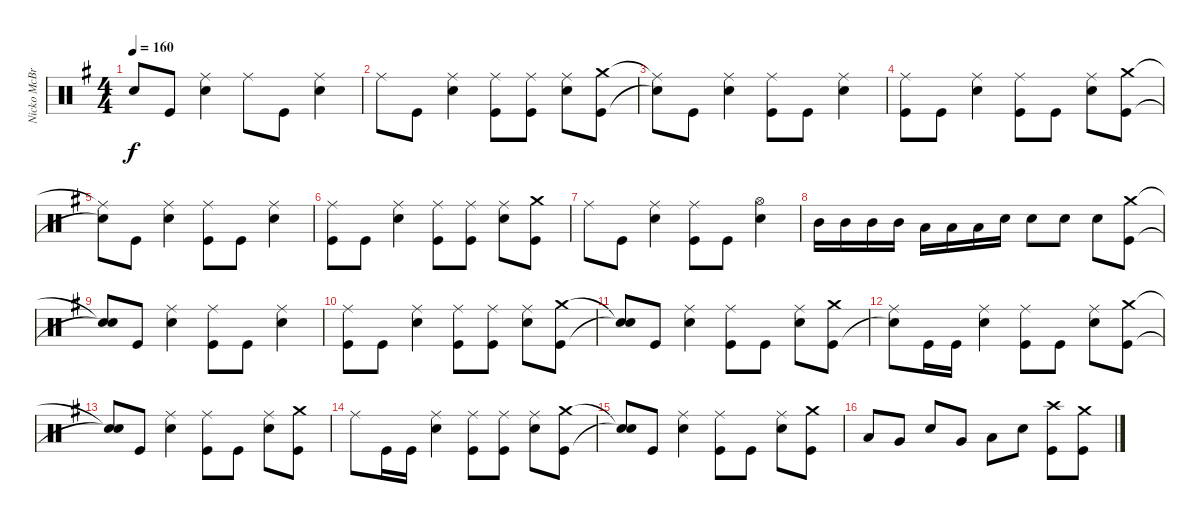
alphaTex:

\track ("Nicko McBrain" "Nicko McBr") {instrument percussion}
\staff {score}
\articulation defaults
\ts (4 4)
\tempo 160
\clef neutral
\ks g "Snare (hit)"{t}.8{dy f} "Kick (hit)".8
("Electric Snare (hit)" "Ride (middle)").4 "Ride (middle)".8 "Kick (hit)".8 ("Electric Snare (hit)" "Ride (middle)").4 |
"Ride (middle)".8 "Kick (hit)".8 ("Electric Snare (hit)" "Ride (middle)").4 ("Kick (hit)" "Ride (middle)").8 ("Kick (hit)" "Ride (middle)").8 ("Electric Snare (hit)" "Ride (middle)").8 ("Kick (hit)" "Crash medium (hit)").8 |
("Snare (hit)"{t} "Ride (middle)"{t}).8 "Kick (hit)".8 ("Electric Snare (hit)" "Ride (middle)").4 ("Kick (hit)" "Ride (middle)").8 "Kick (hit)".8 ("Electric Snare (hit)" "Ride (middle)").4 |
("Kick (hit)" "Ride (middle)").8 "Kick (hit)".8 ("Electric Snare (hit)" "Ride (middle)").4 ("Kick (hit)" "Ride (middle)").8 "Kick (hit)".8 ("Electric Snare (hit)" "Ride (middle)").8 ("Kick (hit)" "Crash medium (hit)").8 |
("Snare (hit)"{t} "Ride (middle)"{t}).8 "Kick (hit)".8 ("Electric Snare (hit)" "Ride (middle)").4 ("Kick (hit)" "Ride (middle)").8 "Kick (hit)".8 ("Electric Snare (hit)" "Ride (middle)").4 |
("Kick (hit)" "Ride (middle)").8 "Kick (hit)".8 ("Electric Snare (hit)" "Ride (middle)").4 ("Kick (hit)" "Ride (middle)").8 ("Kick (hit)" "Ride (middle)").8 ("Electric Snare (hit)" "Ride (middle)").8 ("Kick (hit)" "Crash medium (hit)").8 |
"Ride (middle)".8 "Kick (hit)".8 ("Electric Snare (hit)" "Ride (middle)").4 ("Kick (hit)" "Ride (middle)").8 "Kick (hit)".8 ("Electric Snare (hit)" "Hi-Hat (open)").4 |
"Mid Tom (hit)".16 "Mid Tom (hit)".16 "Mid Tom (hit)".16 "Mid Tom (hit)".16 "Low Tom (hit)".16 "Low Tom (hit)".16 "Low Tom (hit)".16 "Electric Snare (hit)".16 "Electric Snare (hit)".8 "Electric Snare (hit)".8 "Electric Snare (hit)".8 ("Kick (hit)" "Crash medium (hit)").8 |
("Snare (hit)"{t} "Snare (hit)"{t}).8 "Kick (hit)".8 ("Electric Snare (hit)" "Ride (middle)").4 ("Kick (hit)" "Ride (middle)").8 "Kick (hit)".8 ("Electric Snare (hit)" "Ride (middle)").4 |
("Kick (hit)" "Ride (middle)").8 "Kick (hit)".8 ("Electric Snare (hit)" "Ride (middle)").4 ("Kick (hit)" "Ride (middle)").8 ("Kick (hit)" "Ride (middle)").8 ("Electric Snare (hit)" "Ride (middle)").8 ("Kick (hit)" "Crash medium (hit)").8 |
("Snare (hit)"{t} "Snare (hit)"{t}).8 "Kick (hit)".8 ("Electric Snare (hit)" "Ride (middle)").4 ("Kick (hit)" "Ride (middle)").8 "Kick (hit)".8 ("Electric Snare (hit)" "Ride (middle)").8 ("Kick (hit)" "Crash medium (hit)").8 |
("Snare (hit)"{t} "Ride (middle)").8 "Kick (hit)".16 "Kick (hit)".16 ("Electric Snare (hit)" "Ride (middle)").4 ("Kick (hit)" "Ride (middle)").8 "Kick (hit)".8 ("Electric Snare (hit)" "Ride (middle)").8 ("Kick (hit)" "Crash medium (hit)").8 |
("Snare (hit)"{t} "Snare (hit)"{t}).8 "Kick (hit)".8 ("Electric Snare (hit)" "Ride (middle)").4 ("Kick (hit)" "Ride (middle)").8 "Kick (hit)".8 ("Electric Snare (hit)" "Ride (middle)").8 ("Kick (hit)" "Crash medium (hit)").8 |
"Ride (middle)".8 "Kick (hit)".16 "Kick (hit)".16 ("Electric Snare (hit)" "Ride (middle)").4 ("Kick (hit)" "Ride (middle)").8 ("Kick (hit)" "Ride (middle)").8 ("Electric Snare (hit)" "Ride (middle)").8 ("Kick (hit)" "Crash medium (hit)").8 |
("Snare (hit)"{t} "Snare (hit)"{t}).8 "Kick (hit)".8 ("Electric Snare (hit)" "Ride (middle)").4 ("Kick (hit)" "Ride (middle)").8 "Kick (hit)".8 ("Electric Snare (hit)" "Ride (middle)").8 ("Kick (hit)" "Crash medium (hit)").8 |
"Low Tom (hit)".8 "Very Low Tom (hit)".8 "Electric Snare (hit)".8 "Very Low Tom (hit)".8 "Low Floor Tom (hit)".8 "Electric Snare (hit)".8 ("Kick (hit)" "Crash high (hit)").8 ("Kick (hit)" "Crash medium (hit)").8
